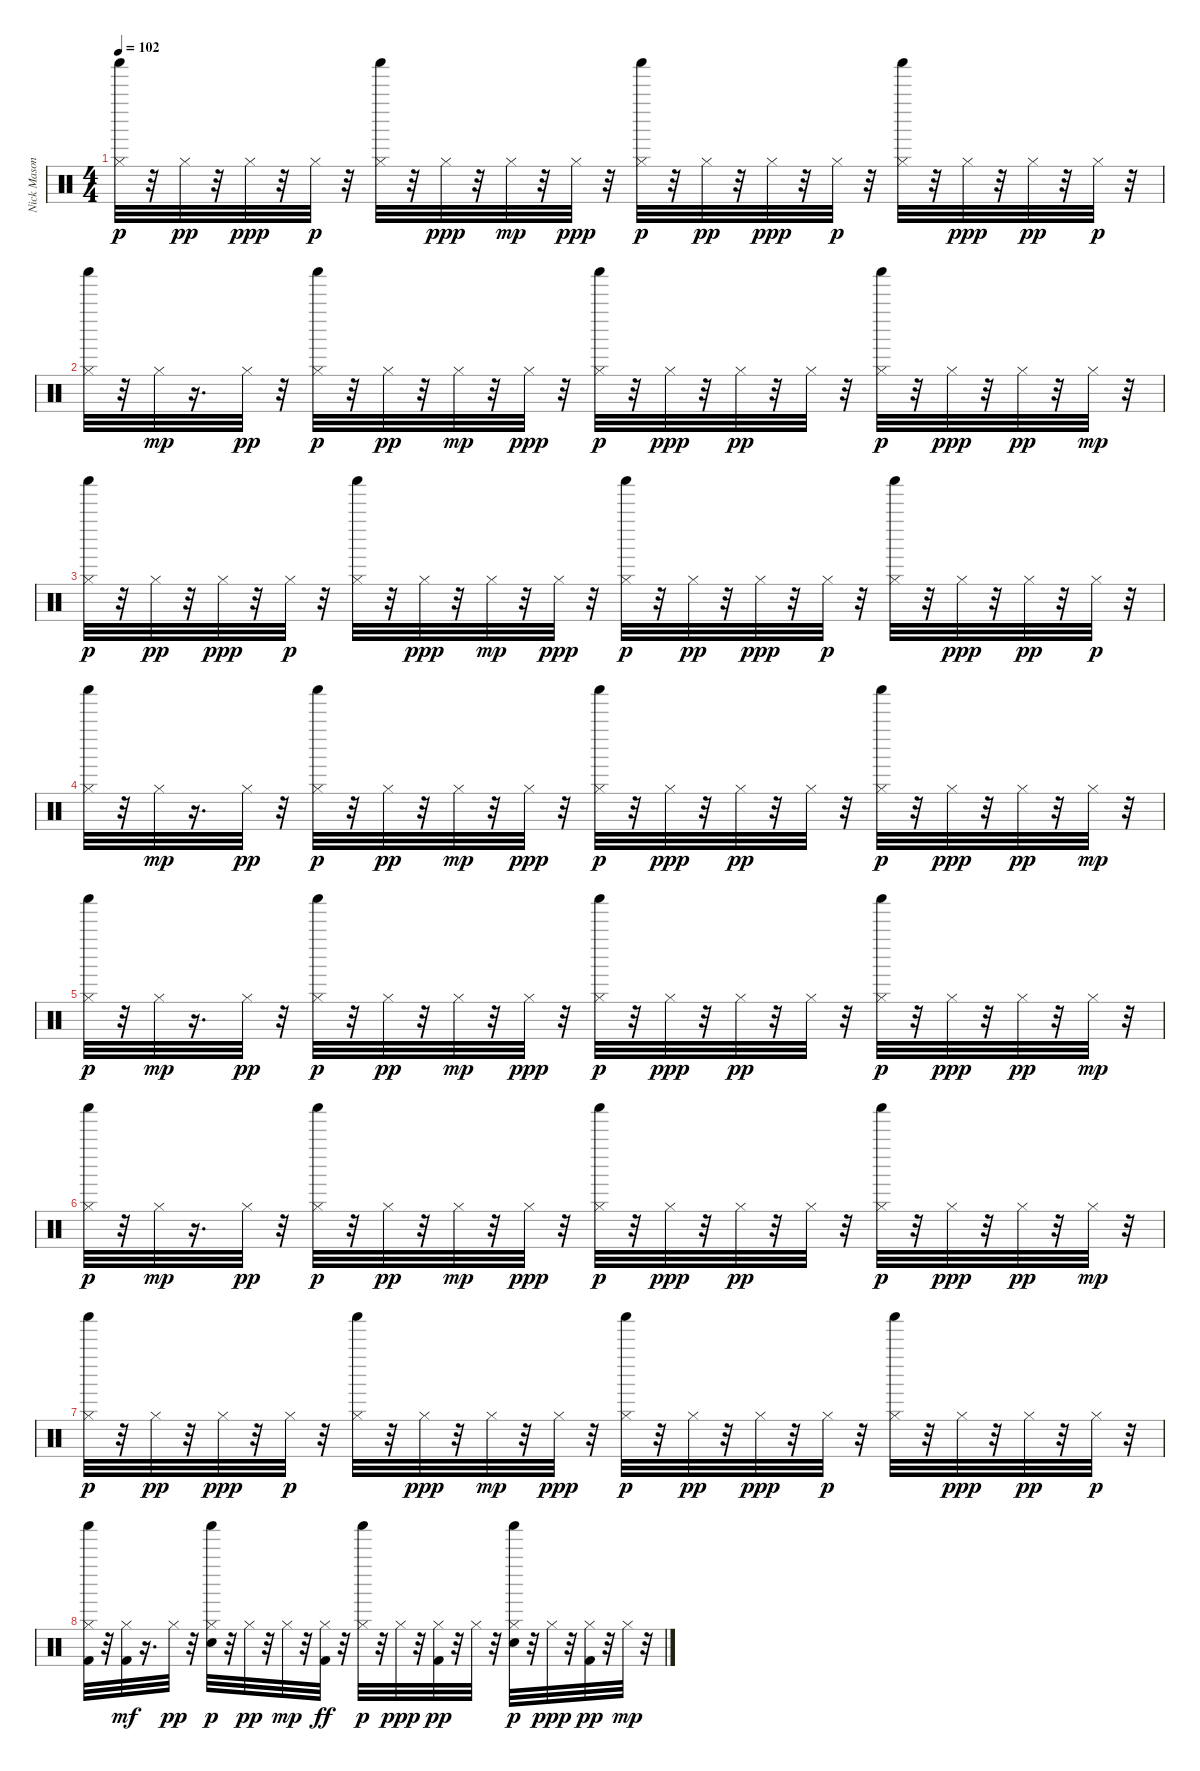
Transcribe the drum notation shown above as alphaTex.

\track ("Nick Mason / Gary Wallis" "Nick Mason") {instrument percussion}
\staff {score}
\articulation defaults
\ts (4 4)
\tempo 102
\clef neutral
\ks c
("Hi-Hat (closed)" "Shaker (hit)").32{dy p} r.32 "Hi-Hat (closed)".32{dy pp} r.32 "Hi-Hat (closed)".32{dy ppp} r.32 "Hi-Hat (closed)".32{dy p} r.32 ("Hi-Hat (closed)" "Shaker (hit)").32 r.32 "Hi-Hat (closed)".32{dy ppp} r.32 "Hi-Hat (closed)".32{dy mp} r.32 "Hi-Hat (closed)".32{dy ppp} r.32 ("Hi-Hat (closed)" "Shaker (hit)").32{dy p} r.32 "Hi-Hat (closed)".32{dy pp} r.32 "Hi-Hat (closed)".32{dy ppp} r.32 "Hi-Hat (closed)".32{dy p} r.32 ("Hi-Hat (closed)" "Shaker (hit)").32 r.32 "Hi-Hat (closed)".32{dy ppp} r.32 "Hi-Hat (closed)".32{dy pp} r.32 "Hi-Hat (closed)".32{dy p} r.32 |
("Hi-Hat (closed)" "Shaker (hit)").32 r.32 "Hi-Hat (closed)".32{dy mp} r.16{d} "Hi-Hat (closed)".32{dy pp} r.32 ("Hi-Hat (closed)" "Shaker (hit)").32{dy p} r.32 "Hi-Hat (closed)".32{dy pp} r.32 "Hi-Hat (closed)".32{dy mp} r.32 "Hi-Hat (closed)".32{dy ppp} r.32 ("Hi-Hat (closed)" "Shaker (hit)").32{dy p} r.32 "Hi-Hat (closed)".32{dy ppp} r.32 "Hi-Hat (closed)".32{dy pp} r.32 "Hi-Hat (closed)".32 r.32 ("Hi-Hat (closed)" "Shaker (hit)").32{dy p} r.32 "Hi-Hat (closed)".32{dy ppp} r.32 "Hi-Hat (closed)".32{dy pp} r.32 "Hi-Hat (closed)".32{dy mp} r.32 |
("Hi-Hat (closed)" "Shaker (hit)").32{dy p} r.32 "Hi-Hat (closed)".32{dy pp} r.32 "Hi-Hat (closed)".32{dy ppp} r.32 "Hi-Hat (closed)".32{dy p} r.32 ("Hi-Hat (closed)" "Shaker (hit)").32 r.32 "Hi-Hat (closed)".32{dy ppp} r.32 "Hi-Hat (closed)".32{dy mp} r.32 "Hi-Hat (closed)".32{dy ppp} r.32 ("Hi-Hat (closed)" "Shaker (hit)").32{dy p} r.32 "Hi-Hat (closed)".32{dy pp} r.32 "Hi-Hat (closed)".32{dy ppp} r.32 "Hi-Hat (closed)".32{dy p} r.32 ("Hi-Hat (closed)" "Shaker (hit)").32 r.32 "Hi-Hat (closed)".32{dy ppp} r.32 "Hi-Hat (closed)".32{dy pp} r.32 "Hi-Hat (closed)".32{dy p} r.32 |
("Hi-Hat (closed)" "Shaker (hit)").32 r.32 "Hi-Hat (closed)".32{dy mp} r.16{d} "Hi-Hat (closed)".32{dy pp} r.32 ("Hi-Hat (closed)" "Shaker (hit)").32{dy p} r.32 "Hi-Hat (closed)".32{dy pp} r.32 "Hi-Hat (closed)".32{dy mp} r.32 "Hi-Hat (closed)".32{dy ppp} r.32 ("Hi-Hat (closed)" "Shaker (hit)").32{dy p} r.32 "Hi-Hat (closed)".32{dy ppp} r.32 "Hi-Hat (closed)".32{dy pp} r.32 "Hi-Hat (closed)".32 r.32 ("Hi-Hat (closed)" "Shaker (hit)").32{dy p} r.32 "Hi-Hat (closed)".32{dy ppp} r.32 "Hi-Hat (closed)".32{dy pp} r.32 "Hi-Hat (closed)".32{dy mp} r.32 |
("Hi-Hat (closed)" "Shaker (hit)").32{dy p} r.32 "Hi-Hat (closed)".32{dy mp} r.16{d} "Hi-Hat (closed)".32{dy pp} r.32 ("Hi-Hat (closed)" "Shaker (hit)").32{dy p} r.32 "Hi-Hat (closed)".32{dy pp} r.32 "Hi-Hat (closed)".32{dy mp} r.32 "Hi-Hat (closed)".32{dy ppp} r.32 ("Hi-Hat (closed)" "Shaker (hit)").32{dy p} r.32 "Hi-Hat (closed)".32{dy ppp} r.32 "Hi-Hat (closed)".32{dy pp} r.32 "Hi-Hat (closed)".32 r.32 ("Hi-Hat (closed)" "Shaker (hit)").32{dy p} r.32 "Hi-Hat (closed)".32{dy ppp} r.32 "Hi-Hat (closed)".32{dy pp} r.32 "Hi-Hat (closed)".32{dy mp} r.32 |
("Hi-Hat (closed)" "Shaker (hit)").32{dy p} r.32 "Hi-Hat (closed)".32{dy mp} r.16{d} "Hi-Hat (closed)".32{dy pp} r.32 ("Hi-Hat (closed)" "Shaker (hit)").32{dy p} r.32 "Hi-Hat (closed)".32{dy pp} r.32 "Hi-Hat (closed)".32{dy mp} r.32 "Hi-Hat (closed)".32{dy ppp} r.32 ("Hi-Hat (closed)" "Shaker (hit)").32{dy p} r.32 "Hi-Hat (closed)".32{dy ppp} r.32 "Hi-Hat (closed)".32{dy pp} r.32 "Hi-Hat (closed)".32 r.32 ("Hi-Hat (closed)" "Shaker (hit)").32{dy p} r.32 "Hi-Hat (closed)".32{dy ppp} r.32 "Hi-Hat (closed)".32{dy pp} r.32 "Hi-Hat (closed)".32{dy mp} r.32 |
("Hi-Hat (closed)" "Shaker (hit)").32{dy p} r.32 "Hi-Hat (closed)".32{dy pp} r.32 "Hi-Hat (closed)".32{dy ppp} r.32 "Hi-Hat (closed)".32{dy p} r.32 ("Hi-Hat (closed)" "Shaker (hit)").32 r.32 "Hi-Hat (closed)".32{dy ppp} r.32 "Hi-Hat (closed)".32{dy mp} r.32 "Hi-Hat (closed)".32{dy ppp} r.32 ("Hi-Hat (closed)" "Shaker (hit)").32{dy p} r.32 "Hi-Hat (closed)".32{dy pp} r.32 "Hi-Hat (closed)".32{dy ppp} r.32 "Hi-Hat (closed)".32{dy p} r.32 ("Hi-Hat (closed)" "Shaker (hit)").32 r.32 "Hi-Hat (closed)".32{dy ppp} r.32 "Hi-Hat (closed)".32{dy pp} r.32 "Hi-Hat (closed)".32{dy p} r.32 |
("Kick (hit) 2" "Hi-Hat (closed)" "Shaker (hit)").32 r.32 ("Hi-Hat (closed)" "Kick (hit) 2").32{dy mf} r.16{d} "Hi-Hat (closed)".32{dy pp} r.32 ("Snare (hit) 2" "Hi-Hat (closed)" "Shaker (hit)").32{dy p} r.32 "Hi-Hat (closed)".32{dy pp} r.32 "Hi-Hat (closed)".32{dy mp} r.32 ("Hi-Hat (closed)" "Kick (hit) 2").32{dy ff} r.32 ("Hi-Hat (closed)" "Shaker (hit)").32{dy p} r.32 "Hi-Hat (closed)".32{dy ppp} r.32 ("Hi-Hat (closed)" "Kick (hit) 2").32{dy pp} r.32 "Hi-Hat (closed)".32 r.32 ("Snare (hit) 2" "Hi-Hat (closed)" "Shaker (hit)").32{dy p} r.32 "Hi-Hat (closed)".32{dy ppp} r.32 ("Kick (hit) 2" "Hi-Hat (closed)").32{dy pp} r.32 "Hi-Hat (closed)".32{dy mp} r.32
